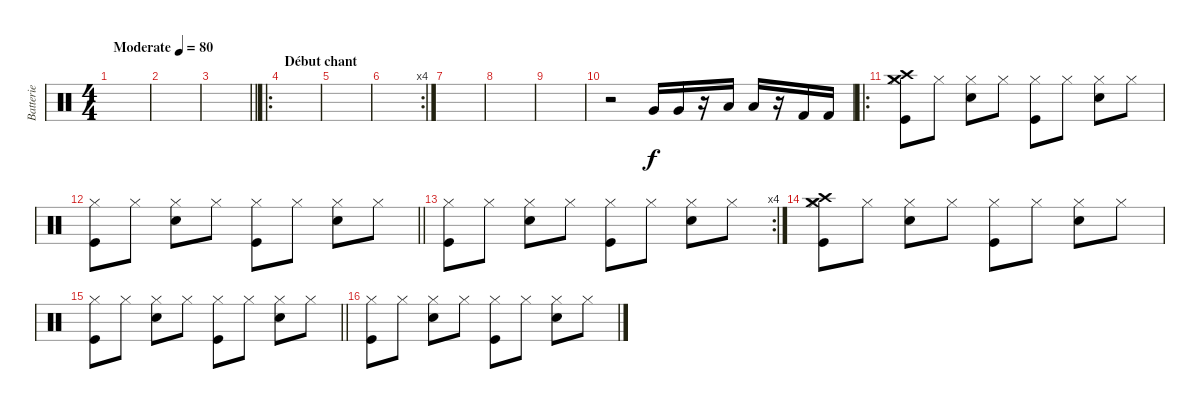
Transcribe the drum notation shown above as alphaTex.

\track ("Batterie" "Batterie") {instrument percussion}
\staff {score}
\articulation defaults
\ts (4 4)
\tempo (80 "Moderate")
\clef neutral
\ks c
|
|
\barLineRight lightlight
|
\ro
\section ("" "Début chant")
|
|
\rc 4
|
|
|
|
r.2 "Very Low Tom (hit)".16 "Very Low Tom (hit)".16 r.16 "Low Floor Tom (hit)".16 "Low Floor Tom (hit)".16 r.16 "Kick (hit) 2".16 "Kick (hit) 2".16 |
\ro
("Kick (hit)" "Hi-Hat (closed)" "Crash medium (hit)" "Crash high (hit)").8 "Hi-Hat (closed)".8 ("Snare (hit) 2" "Hi-Hat (closed)").8 "Hi-Hat (closed)".8 ("Kick (hit)" "Hi-Hat (closed)").8 "Hi-Hat (closed)".8 ("Snare (hit) 2" "Hi-Hat (closed)").8 "Hi-Hat (closed)".8 |
\barLineRight lightlight
("Kick (hit)" "Hi-Hat (closed)").8 "Hi-Hat (closed)".8 ("Snare (hit) 2" "Hi-Hat (closed)").8 "Hi-Hat (closed)".8 ("Kick (hit)" "Hi-Hat (closed)").8 "Hi-Hat (closed)".8 ("Snare (hit) 2" "Hi-Hat (closed)").8 "Hi-Hat (closed)".8 |
\rc 4
("Kick (hit)" "Hi-Hat (closed)").8 "Hi-Hat (closed)".8 ("Snare (hit) 2" "Hi-Hat (closed)").8 "Hi-Hat (closed)".8 ("Kick (hit)" "Hi-Hat (closed)").8 "Hi-Hat (closed)".8 ("Snare (hit) 2" "Hi-Hat (closed)").8 "Hi-Hat (closed)".8 |
("Kick (hit)" "Hi-Hat (closed)" "Crash medium (hit)" "Crash high (hit)").8 "Hi-Hat (closed)".8 ("Snare (hit) 2" "Hi-Hat (closed)").8 "Hi-Hat (closed)".8 ("Kick (hit)" "Hi-Hat (closed)").8 "Hi-Hat (closed)".8 ("Snare (hit) 2" "Hi-Hat (closed)").8 "Hi-Hat (closed)".8 |
\barLineRight lightlight
("Kick (hit)" "Hi-Hat (closed)").8 "Hi-Hat (closed)".8 ("Snare (hit) 2" "Hi-Hat (closed)").8 "Hi-Hat (closed)".8 ("Kick (hit)" "Hi-Hat (closed)").8 "Hi-Hat (closed)".8 ("Snare (hit) 2" "Hi-Hat (closed)").8 "Hi-Hat (closed)".8 |
("Kick (hit)" "Hi-Hat (closed)").8 "Hi-Hat (closed)".8 ("Snare (hit) 2" "Hi-Hat (closed)").8 "Hi-Hat (closed)".8 ("Kick (hit)" "Hi-Hat (closed)").8 "Hi-Hat (closed)".8 ("Snare (hit) 2" "Hi-Hat (closed)").8 "Hi-Hat (closed)".8
